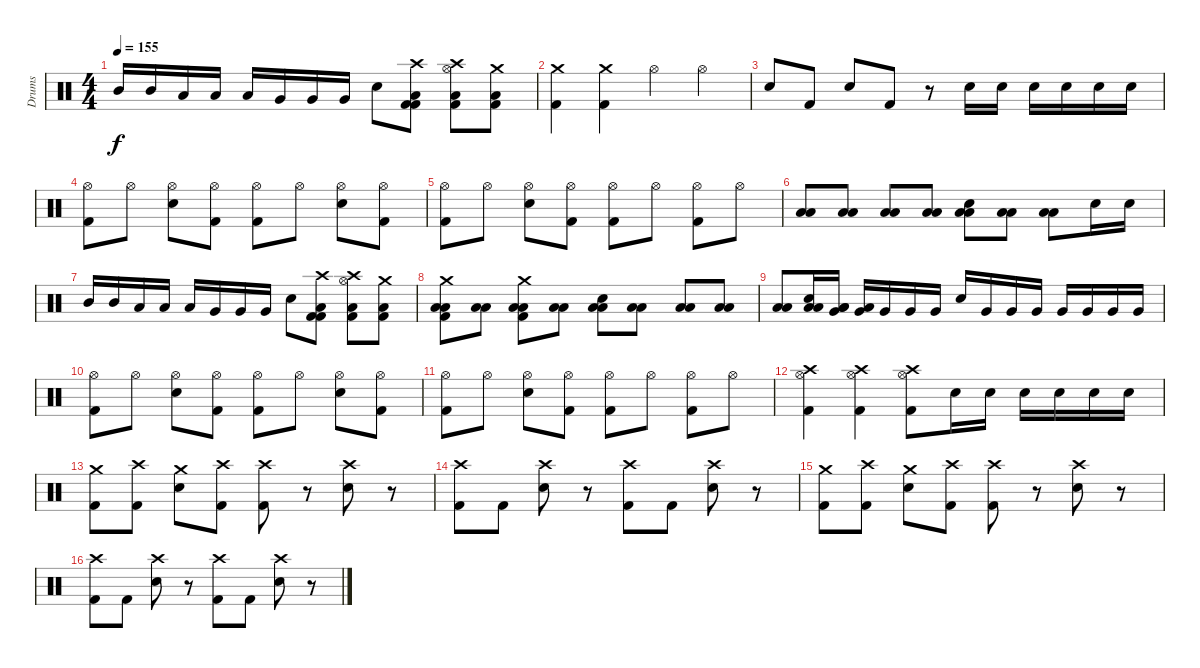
\track ("Drums" "Drums") {instrument percussion}
\staff {score}
\articulation defaults
\ts (4 4)
\tempo 155
\clef neutral
\ks c "Mid Tom (hit)".16{dy f} "Mid Tom (hit)".16 "Low Tom (hit)".16 "Low Tom (hit)".16 "Low Tom (hit)".16 "Very Low Tom (hit)".16 "Very Low Tom (hit)".16 "Very Low Tom (hit)".16 "Snare (hit) 2".8
("Crash high (hit)" "Kick (hit) 2" "Low Floor Tom (hit)" "Kick (hit) 2").8 ("Crash high (hit)" "Kick (hit) 2" "Low Floor Tom (hit)" "Hi-Hat (open)").8 ("Crash medium (hit)" "Kick (hit) 2" "Low Floor Tom (hit)").8 |
("Crash medium (hit)" "Kick (hit) 2").4 ("Crash medium (hit)" "Kick (hit) 2").4 "Hi-Hat (open)".4 "Hi-Hat (open)".4 |
"Snare (hit) 2".8 "Kick (hit) 2".8 "Snare (hit) 2".8 "Kick (hit) 2".8 r.8 "Snare (hit) 2".16 "Snare (hit) 2".16 "Snare (hit) 2".16 "Snare (hit) 2".16 "Snare (hit) 2".16 "Snare (hit) 2".16 |
("Hi-Hat (open)" "Kick (hit) 2").8 "Hi-Hat (open)".8 ("Hi-Hat (open)" "Snare (hit) 2").8 ("Hi-Hat (open)" "Kick (hit) 2").8 ("Hi-Hat (open)" "Kick (hit) 2").8 "Hi-Hat (open)".8 ("Hi-Hat (open)" "Snare (hit) 2").8 ("Hi-Hat (open)" "Kick (hit) 2").8 |
("Hi-Hat (open)" "Kick (hit) 2").8 "Hi-Hat (open)".8 ("Hi-Hat (open)" "Snare (hit) 2").8 ("Hi-Hat (open)" "Kick (hit) 2").8 ("Hi-Hat (open)" "Kick (hit) 2").8 "Hi-Hat (open)".8 ("Hi-Hat (open)" "Kick (hit) 2").8 "Hi-Hat (open)".8 |
("Low Floor Tom (hit)" "Low Floor Tom (hit)").8 ("Low Floor Tom (hit)" "Low Floor Tom (hit)").8 ("Low Floor Tom (hit)" "Low Floor Tom (hit)").8 ("Low Floor Tom (hit)" "Low Floor Tom (hit)").8 ("Low Floor Tom (hit)" "Snare (hit) 2" "Low Floor Tom (hit)").8 ("Low Floor Tom (hit)" "Low Floor Tom (hit)").8 ("Low Floor Tom (hit)" "Low Floor Tom (hit)").8 "Snare (hit) 2".16 "Snare (hit) 2".16 |
"Mid Tom (hit)".16 "Mid Tom (hit)".16 "Low Tom (hit)".16 "Low Tom (hit)".16 "Low Tom (hit)".16 "Very Low Tom (hit)".16 "Very Low Tom (hit)".16 "Very Low Tom (hit)".16 "Snare (hit) 2".8 ("Crash high (hit)" "Kick (hit) 2" "Low Floor Tom (hit)" "Kick (hit) 2").8 ("Crash high (hit)" "Kick (hit) 2" "Low Floor Tom (hit)" "Hi-Hat (open)").8 ("Crash medium (hit)" "Kick (hit) 2" "Low Floor Tom (hit)").8 |
("Crash medium (hit)" "Kick (hit) 2" "Low Floor Tom (hit)" "Low Floor Tom (hit)").8 ("Low Floor Tom (hit)" "Low Floor Tom (hit)").8 ("Crash medium (hit)" "Kick (hit) 2" "Low Floor Tom (hit)" "Low Floor Tom (hit)").8 ("Low Floor Tom (hit)" "Low Floor Tom (hit)").8 ("Low Floor Tom (hit)" "Snare (hit) 2" "Low Floor Tom (hit)").8 ("Low Floor Tom (hit)" "Low Floor Tom (hit)").8 ("Low Floor Tom (hit)" "Low Floor Tom (hit)").8 ("Low Floor Tom (hit)" "Low Floor Tom (hit)").8 |
("Low Floor Tom (hit)" "Low Floor Tom (hit)").8 ("Snare (hit) 2" "Low Floor Tom (hit)" "Low Floor Tom (hit)").16 ("Very Low Tom (hit)" "Low Floor Tom (hit)" "Low Floor Tom (hit)").16 ("Very Low Tom (hit)" "Low Floor Tom (hit)").16 "Very Low Tom (hit)".16 "Very Low Tom (hit)".16 "Very Low Tom (hit)".16 "Snare (hit) 2".16 "Very Low Tom (hit)".16 "Very Low Tom (hit)".16 "Very Low Tom (hit)".16 "Very Low Tom (hit)".16 "Very Low Tom (hit)".16 "Very Low Tom (hit)".16 "Very Low Tom (hit)".16 |
("Hi-Hat (open)" "Kick (hit) 2").8 "Hi-Hat (open)".8 ("Hi-Hat (open)" "Snare (hit) 2").8 ("Hi-Hat (open)" "Kick (hit) 2").8 ("Hi-Hat (open)" "Kick (hit) 2").8 "Hi-Hat (open)".8 ("Hi-Hat (open)" "Snare (hit) 2").8 ("Hi-Hat (open)" "Kick (hit) 2").8 |
("Hi-Hat (open)" "Kick (hit) 2").8 "Hi-Hat (open)".8 ("Hi-Hat (open)" "Snare (hit) 2").8 ("Hi-Hat (open)" "Kick (hit) 2").8 ("Hi-Hat (open)" "Kick (hit) 2").8 "Hi-Hat (open)".8 ("Hi-Hat (open)" "Kick (hit) 2").8 "Hi-Hat (open)".8 |
("Crash high (hit)" "Kick (hit) 2" "Hi-Hat (open)").4 ("Crash high (hit)" "Kick (hit) 2" "Hi-Hat (open)").4 ("Crash high (hit)" "Hi-Hat (open)" "Kick (hit) 2").8 "Snare (hit) 2".16 "Snare (hit) 2".16 "Snare (hit) 2".16 "Snare (hit) 2".16 "Snare (hit) 2".16 "Snare (hit) 2".16 |
("Crash medium (hit)" "Kick (hit) 2").8 ("Crash high (hit)" "Kick (hit) 2").8 ("Crash medium (hit)" "Snare (hit) 2").8 ("Crash high (hit)" "Kick (hit) 2").8 ("Crash high (hit)" "Kick (hit) 2").8 r.8 ("Crash high (hit)" "Snare (hit) 2").8 r.8 |
("Crash high (hit)" "Kick (hit) 2").8 "Kick (hit) 2".8 ("Crash high (hit)" "Snare (hit) 2").8 r.8 ("Crash high (hit)" "Kick (hit) 2").8 "Kick (hit) 2".8 ("Crash high (hit)" "Snare (hit) 2").8 r.8 |
("Crash medium (hit)" "Kick (hit) 2").8 ("Crash high (hit)" "Kick (hit) 2").8 ("Crash medium (hit)" "Snare (hit) 2").8 ("Crash high (hit)" "Kick (hit) 2").8 ("Crash high (hit)" "Kick (hit) 2").8 r.8 ("Crash high (hit)" "Snare (hit) 2").8 r.8 |
("Crash high (hit)" "Kick (hit) 2").8 "Kick (hit) 2".8 ("Crash high (hit)" "Snare (hit) 2").8 r.8 ("Crash high (hit)" "Kick (hit) 2").8 "Kick (hit) 2".8 ("Crash high (hit)" "Snare (hit) 2").8 r.8
